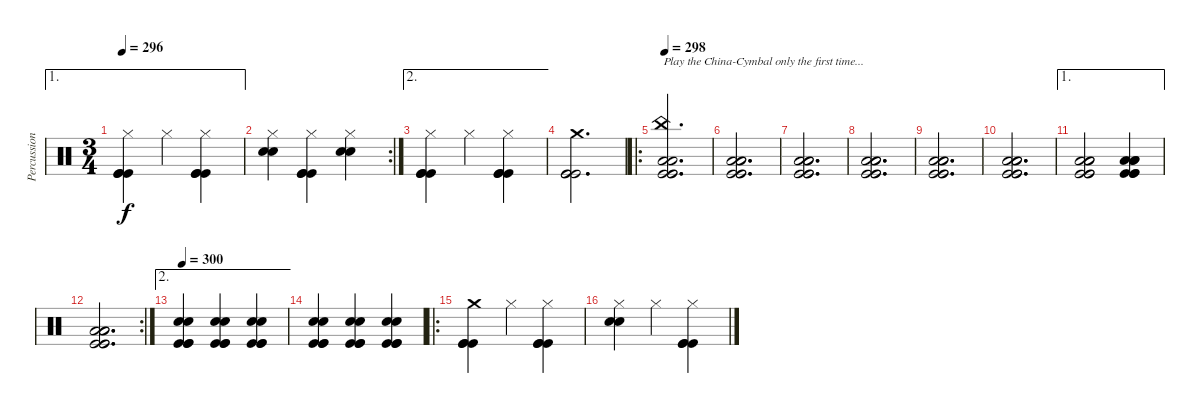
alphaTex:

\track ("Percussion" "Percussion") {instrument percussion}
\staff {score}
\articulation defaults
\ae 1
\ts (3 4)
\tempo 296
\clef neutral
\ks c
("Hi-Hat (closed)" "Kick (hit)" "Kick (hit)" "Kick (hit)").4{dy f} "Hi-Hat (closed)".4 ("Hi-Hat (closed)" "Kick (hit)" "Kick (hit)" "Kick (hit)").4 |
\rc 2
("Hi-Hat (closed)" "Snare (hit) 2" "Electric Snare (hit)").4 ("Hi-Hat (closed)" "Kick (hit)" "Kick (hit)" "Kick (hit)").4 ("Hi-Hat (closed)" "Snare (hit) 2" "Electric Snare (hit)").4 |
\ae 2
("Hi-Hat (closed)" "Kick (hit)" "Kick (hit)" "Kick (hit)").4 "Hi-Hat (closed)".4 ("Hi-Hat (closed)" "Kick (hit)" "Kick (hit)" "Kick (hit)").4 |
("Crash medium (hit)" "Kick (hit)" "Kick (hit)" "Kick (hit)").2{d} |
\ro
\tempo 298
("China (hit)" "Low Floor Tom (hit)" "Low Floor Tom (hit)" "Kick (hit)" "Kick (hit)" "Kick (hit)").2{d txt "Play the China-Cymbal only the first time..."} |
("Low Floor Tom (hit)" "Low Floor Tom (hit)" "Low Floor Tom (hit)" "Kick (hit)" "Kick (hit)" "Kick (hit)").2{d} |
("Low Floor Tom (hit)" "Low Floor Tom (hit)" "Low Floor Tom (hit)" "Kick (hit)" "Kick (hit)" "Kick (hit)").2{d} |
("Low Floor Tom (hit)" "Low Floor Tom (hit)" "Low Floor Tom (hit)" "Kick (hit)" "Kick (hit)" "Kick (hit)").2{d} |
("Low Floor Tom (hit)" "Low Floor Tom (hit)" "Low Floor Tom (hit)" "Kick (hit)" "Kick (hit)" "Kick (hit)").2{d} |
("Low Floor Tom (hit)" "Low Floor Tom (hit)" "Low Floor Tom (hit)" "Kick (hit)" "Kick (hit)" "Kick (hit)").2{d} |
\ae 1
("Low Floor Tom (hit)" "Low Floor Tom (hit)" "Low Floor Tom (hit)" "Kick (hit)" "Kick (hit)" "Kick (hit)").2 ("Low Floor Tom (hit)" "Low Floor Tom (hit)" "Low Floor Tom (hit)" "Kick (hit)" "Kick (hit)" "Kick (hit)").4 |
\rc 2
("Low Floor Tom (hit)" "Low Floor Tom (hit)" "Low Floor Tom (hit)" "Kick (hit)" "Kick (hit)" "Kick (hit)").2{d} |
\ae 2
\tempo 300
("Electric Snare (hit)" "Snare (hit) 2" "Kick (hit)" "Kick (hit)" "Kick (hit)").4 ("Electric Snare (hit)" "Snare (hit) 2" "Kick (hit)" "Kick (hit)" "Kick (hit)").4 ("Electric Snare (hit)" "Snare (hit) 2" "Kick (hit)" "Kick (hit)" "Kick (hit)").4 |
("Electric Snare (hit)" "Snare (hit) 2" "Kick (hit)" "Kick (hit)" "Kick (hit)").4 ("Electric Snare (hit)" "Snare (hit) 2" "Kick (hit)" "Kick (hit)" "Kick (hit)").4 ("Electric Snare (hit)" "Snare (hit) 2" "Kick (hit)" "Kick (hit)" "Kick (hit)").4 |
\ro
("Crash medium (hit)" "Kick (hit)" "Kick (hit)" "Kick (hit)").4 "Hi-Hat (closed)".4 ("Hi-Hat (closed)" "Kick (hit)" "Kick (hit)" "Kick (hit)").4 |
("Hi-Hat (closed)" "Electric Snare (hit)" "Snare (hit) 2").4 "Hi-Hat (closed)".4 ("Hi-Hat (closed)" "Kick (hit)" "Kick (hit)" "Kick (hit)").4
